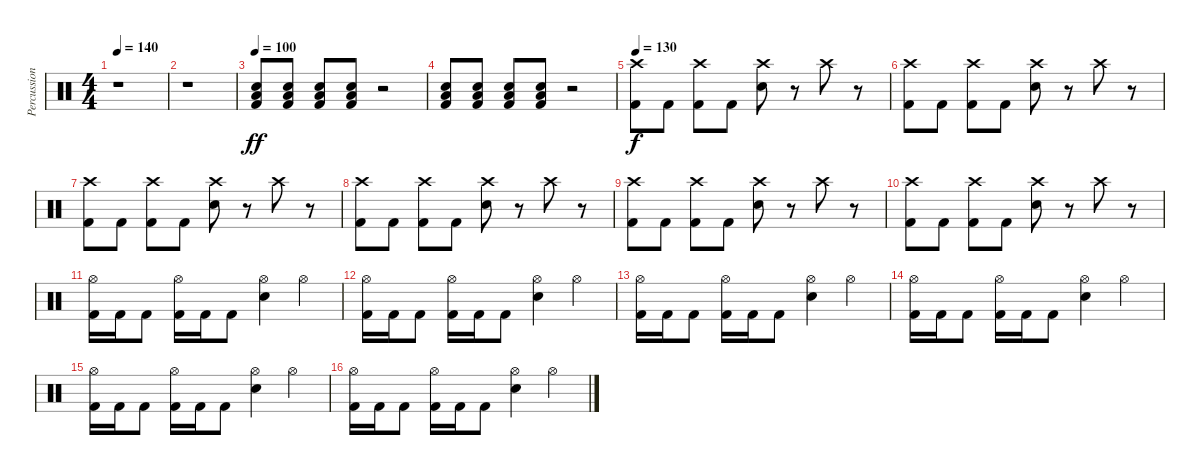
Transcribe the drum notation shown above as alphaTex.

\track ("Percussion" "Percussion") {instrument percussion}
\staff {score}
\articulation defaults
\ts (4 4)
\tempo 140
\clef neutral
\ks c
r.1{dy ff} |
r.1 |
\tempo 100
("Low Tom (hit)" "Snare (hit) 2" "Kick (hit) 2").8 ("Low Tom (hit)" "Snare (hit) 2" "Kick (hit) 2").8 ("Low Tom (hit)" "Snare (hit) 2" "Kick (hit) 2").8 ("Low Tom (hit)" "Snare (hit) 2" "Kick (hit) 2").8 r.2 |
("Low Tom (hit)" "Snare (hit) 2" "Kick (hit) 2").8 ("Low Tom (hit)" "Snare (hit) 2" "Kick (hit) 2").8 ("Low Tom (hit)" "Snare (hit) 2" "Kick (hit) 2").8 ("Low Tom (hit)" "Snare (hit) 2" "Kick (hit) 2").8 r.2 |
\tempo 130
("Crash high (hit)" "Kick (hit) 2").8{dy f} "Kick (hit) 2".8 ("Crash high (hit)" "Kick (hit) 2").8 "Kick (hit) 2".8 ("Crash high (hit)" "Snare (hit) 2").8 r.8 "Crash high (hit)".8 r.8 |
("Crash high (hit)" "Kick (hit) 2").8 "Kick (hit) 2".8 ("Crash high (hit)" "Kick (hit) 2").8 "Kick (hit) 2".8 ("Crash high (hit)" "Snare (hit) 2").8 r.8 "Crash high (hit)".8 r.8 |
("Crash high (hit)" "Kick (hit) 2").8 "Kick (hit) 2".8 ("Crash high (hit)" "Kick (hit) 2").8 "Kick (hit) 2".8 ("Crash high (hit)" "Snare (hit) 2").8 r.8 "Crash high (hit)".8 r.8 |
("Crash high (hit)" "Kick (hit) 2").8 "Kick (hit) 2".8 ("Crash high (hit)" "Kick (hit) 2").8 "Kick (hit) 2".8 ("Crash high (hit)" "Snare (hit) 2").8 r.8 "Crash high (hit)".8 r.8 |
("Crash high (hit)" "Kick (hit) 2").8 "Kick (hit) 2".8 ("Crash high (hit)" "Kick (hit) 2").8 "Kick (hit) 2".8 ("Crash high (hit)" "Snare (hit) 2").8 r.8 "Crash high (hit)".8 r.8 |
("Crash high (hit)" "Kick (hit) 2").8 "Kick (hit) 2".8 ("Crash high (hit)" "Kick (hit) 2").8 "Kick (hit) 2".8 ("Crash high (hit)" "Snare (hit) 2").8 r.8 "Crash high (hit)".8 r.8 |
("Hi-Hat (open)" "Kick (hit) 2").16 "Kick (hit) 2".16 "Kick (hit) 2".8 ("Hi-Hat (open)" "Kick (hit) 2").16 "Kick (hit) 2".16 "Kick (hit) 2".8 ("Hi-Hat (open)" "Snare (hit) 2").4 "Hi-Hat (open)".4 |
("Hi-Hat (open)" "Kick (hit) 2").16 "Kick (hit) 2".16 "Kick (hit) 2".8 ("Hi-Hat (open)" "Kick (hit) 2").16 "Kick (hit) 2".16 "Kick (hit) 2".8 ("Hi-Hat (open)" "Snare (hit) 2").4 "Hi-Hat (open)".4 |
("Hi-Hat (open)" "Kick (hit) 2").16 "Kick (hit) 2".16 "Kick (hit) 2".8 ("Hi-Hat (open)" "Kick (hit) 2").16 "Kick (hit) 2".16 "Kick (hit) 2".8 ("Hi-Hat (open)" "Snare (hit) 2").4 "Hi-Hat (open)".4 |
("Hi-Hat (open)" "Kick (hit) 2").16 "Kick (hit) 2".16 "Kick (hit) 2".8 ("Hi-Hat (open)" "Kick (hit) 2").16 "Kick (hit) 2".16 "Kick (hit) 2".8 ("Hi-Hat (open)" "Snare (hit) 2").4 "Hi-Hat (open)".4 |
("Hi-Hat (open)" "Kick (hit) 2").16 "Kick (hit) 2".16 "Kick (hit) 2".8 ("Hi-Hat (open)" "Kick (hit) 2").16 "Kick (hit) 2".16 "Kick (hit) 2".8 ("Hi-Hat (open)" "Snare (hit) 2").4 "Hi-Hat (open)".4 |
("Hi-Hat (open)" "Kick (hit) 2").16 "Kick (hit) 2".16 "Kick (hit) 2".8 ("Hi-Hat (open)" "Kick (hit) 2").16 "Kick (hit) 2".16 "Kick (hit) 2".8 ("Hi-Hat (open)" "Snare (hit) 2").4 "Hi-Hat (open)".4
